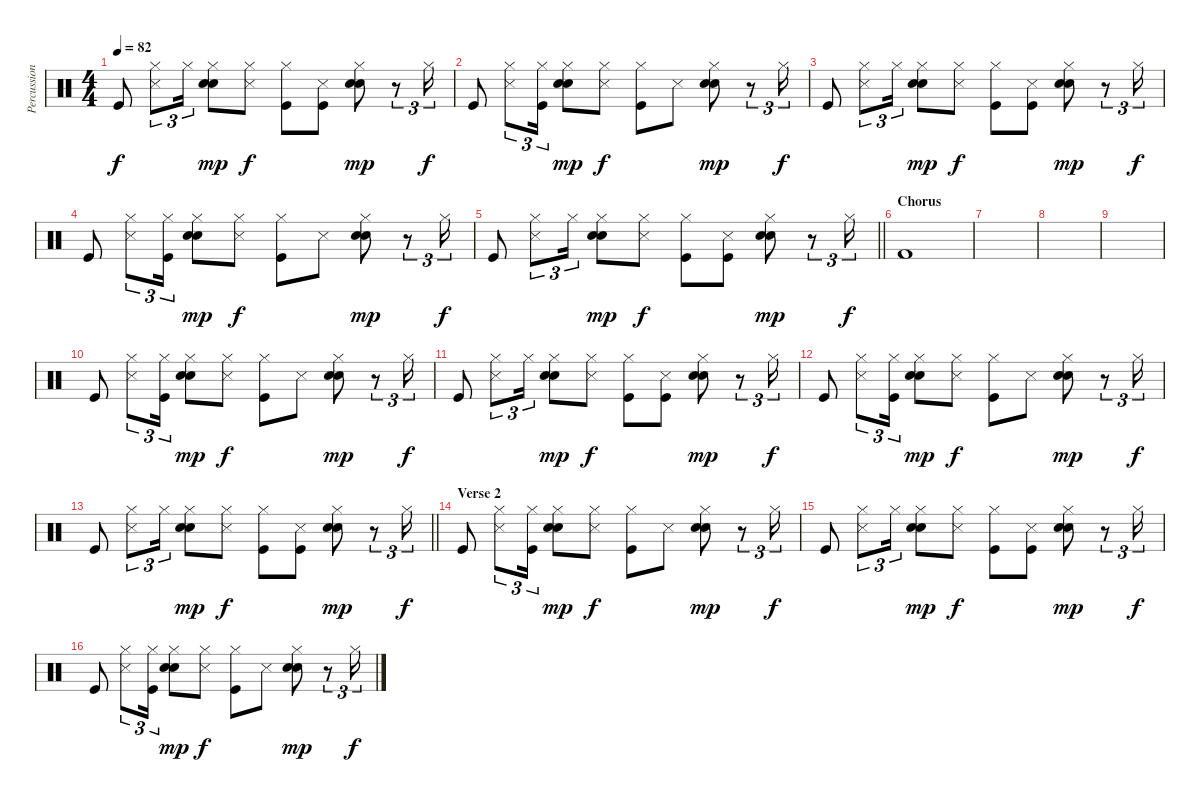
\track ("Percussion" "Percussion") {instrument percussion}
\staff {score}
\articulation defaults
\ts (4 4)
\tempo 82
\clef neutral
\ks c "Kick (hit)".8{dy f}
("Hi-Hat (closed)" "Snare (side stick) 3").8{tu (3 2)} "Hi-Hat (closed)".16{tu (3 2)} ("Hi-Hat (closed)" "Hand Clap (hit)" "Electric Snare (hit)").8{dy mp} ("Hi-Hat (closed)" "Snare (side stick) 3").8{dy f} ("Hi-Hat (closed)" "Kick (hit)").8 ("Snare (side stick) 3" "Kick (hit)").8 ("Hi-Hat (closed)" "Hand Clap (hit)" "Electric Snare (hit)").8{dy mp} r.8{tu (3 2)} "Hi-Hat (closed)".16{tu (3 2) dy f} |
"Kick (hit)".8{volume 13} ("Hi-Hat (closed)" "Snare (side stick) 3").8{tu (3 2)} ("Hi-Hat (closed)" "Kick (hit)").16{tu (3 2)} ("Hi-Hat (closed)" "Hand Clap (hit)" "Electric Snare (hit)").8{dy mp} ("Hi-Hat (closed)" "Snare (side stick) 3").8{dy f} ("Hi-Hat (closed)" "Kick (hit)").8 "Snare (side stick) 3".8 ("Hi-Hat (closed)" "Hand Clap (hit)" "Electric Snare (hit)").8{dy mp} r.8{tu (3 2)} "Hi-Hat (closed)".16{tu (3 2) dy f} |
"Kick (hit)".8 ("Hi-Hat (closed)" "Snare (side stick) 3").8{tu (3 2)} "Hi-Hat (closed)".16{tu (3 2)} ("Hi-Hat (closed)" "Hand Clap (hit)" "Electric Snare (hit)").8{dy mp} ("Hi-Hat (closed)" "Snare (side stick) 3").8{dy f} ("Hi-Hat (closed)" "Kick (hit)").8 ("Snare (side stick) 3" "Kick (hit)").8 ("Hi-Hat (closed)" "Hand Clap (hit)" "Electric Snare (hit)").8{dy mp} r.8{tu (3 2)} "Hi-Hat (closed)".16{tu (3 2) dy f} |
"Kick (hit)".8{volume 13} ("Hi-Hat (closed)" "Snare (side stick) 3").8{tu (3 2)} ("Hi-Hat (closed)" "Kick (hit)").16{tu (3 2)} ("Hi-Hat (closed)" "Hand Clap (hit)" "Electric Snare (hit)").8{dy mp} ("Hi-Hat (closed)" "Snare (side stick) 3").8{dy f} ("Hi-Hat (closed)" "Kick (hit)").8 "Snare (side stick) 3".8 ("Hi-Hat (closed)" "Hand Clap (hit)" "Electric Snare (hit)").8{dy mp} r.8{tu (3 2)} "Hi-Hat (closed)".16{tu (3 2) dy f} |
\barLineRight lightlight "Kick (hit)".8
("Hi-Hat (closed)" "Snare (side stick) 3").8{tu (3 2)} "Hi-Hat (closed)".16{tu (3 2)} ("Hi-Hat (closed)" "Hand Clap (hit)" "Electric Snare (hit)").8{dy mp} ("Hi-Hat (closed)" "Snare (side stick) 3").8{dy f} ("Hi-Hat (closed)" "Kick (hit)").8 ("Snare (side stick) 3" "Kick (hit)").8 ("Hi-Hat (closed)" "Hand Clap (hit)" "Electric Snare (hit)").8{dy mp} r.8{tu (3 2)} "Hi-Hat (closed)".16{tu (3 2) dy f} |
\section ("" "Chorus")
"Kick (hit) 2".1 |
|
|
|
"Kick (hit)".8 ("Hi-Hat (closed)" "Snare (side stick) 3").8{tu (3 2)} ("Hi-Hat (closed)" "Kick (hit)").16{tu (3 2)} ("Hi-Hat (closed)" "Hand Clap (hit)" "Electric Snare (hit)").8{dy mp} ("Hi-Hat (closed)" "Snare (side stick) 3").8{dy f} ("Hi-Hat (closed)" "Kick (hit)").8 "Snare (side stick) 3".8 ("Hi-Hat (closed)" "Hand Clap (hit)" "Electric Snare (hit)").8{dy mp} r.8{tu (3 2)} "Hi-Hat (closed)".16{tu (3 2) dy f} |
"Kick (hit)".8 ("Hi-Hat (closed)" "Snare (side stick) 3").8{tu (3 2)} "Hi-Hat (closed)".16{tu (3 2)} ("Hi-Hat (closed)" "Hand Clap (hit)" "Electric Snare (hit)").8{dy mp} ("Hi-Hat (closed)" "Snare (side stick) 3").8{dy f} ("Hi-Hat (closed)" "Kick (hit)").8 ("Snare (side stick) 3" "Kick (hit)").8 ("Hi-Hat (closed)" "Hand Clap (hit)" "Electric Snare (hit)").8{dy mp} r.8{tu (3 2)} "Hi-Hat (closed)".16{tu (3 2) dy f} |
"Kick (hit)".8 ("Hi-Hat (closed)" "Snare (side stick) 3").8{tu (3 2)} ("Hi-Hat (closed)" "Kick (hit)").16{tu (3 2)} ("Hi-Hat (closed)" "Hand Clap (hit)" "Electric Snare (hit)").8{dy mp} ("Hi-Hat (closed)" "Snare (side stick) 3").8{dy f} ("Hi-Hat (closed)" "Kick (hit)").8 "Snare (side stick) 3".8 ("Hi-Hat (closed)" "Hand Clap (hit)" "Electric Snare (hit)").8{dy mp} r.8{tu (3 2)} "Hi-Hat (closed)".16{tu (3 2) dy f} |
\barLineRight lightlight "Kick (hit)".8
("Hi-Hat (closed)" "Snare (side stick) 3").8{tu (3 2)} "Hi-Hat (closed)".16{tu (3 2)} ("Hi-Hat (closed)" "Hand Clap (hit)" "Electric Snare (hit)").8{dy mp} ("Hi-Hat (closed)" "Snare (side stick) 3").8{dy f} ("Hi-Hat (closed)" "Kick (hit)").8 ("Snare (side stick) 3" "Kick (hit)").8 ("Hi-Hat (closed)" "Hand Clap (hit)" "Electric Snare (hit)").8{dy mp} r.8{tu (3 2)} "Hi-Hat (closed)".16{tu (3 2) dy f} |
\section ("" "Verse 2")
"Kick (hit)".8{volume 13} ("Hi-Hat (closed)" "Snare (side stick) 3").8{tu (3 2)} ("Hi-Hat (closed)" "Kick (hit)").16{tu (3 2)} ("Hi-Hat (closed)" "Hand Clap (hit)" "Electric Snare (hit)").8{dy mp} ("Hi-Hat (closed)" "Snare (side stick) 3").8{dy f} ("Hi-Hat (closed)" "Kick (hit)").8 "Snare (side stick) 3".8 ("Hi-Hat (closed)" "Hand Clap (hit)" "Electric Snare (hit)").8{dy mp} r.8{tu (3 2)} "Hi-Hat (closed)".16{tu (3 2) dy f} |
"Kick (hit)".8 ("Hi-Hat (closed)" "Snare (side stick) 3").8{tu (3 2)} "Hi-Hat (closed)".16{tu (3 2)} ("Hi-Hat (closed)" "Hand Clap (hit)" "Electric Snare (hit)").8{dy mp} ("Hi-Hat (closed)" "Snare (side stick) 3").8{dy f} ("Hi-Hat (closed)" "Kick (hit)").8 ("Snare (side stick) 3" "Kick (hit)").8 ("Hi-Hat (closed)" "Hand Clap (hit)" "Electric Snare (hit)").8{dy mp} r.8{tu (3 2)} "Hi-Hat (closed)".16{tu (3 2) dy f} |
"Kick (hit)".8{volume 13} ("Hi-Hat (closed)" "Snare (side stick) 3").8{tu (3 2)} ("Hi-Hat (closed)" "Kick (hit)").16{tu (3 2)} ("Hi-Hat (closed)" "Hand Clap (hit)" "Electric Snare (hit)").8{dy mp} ("Hi-Hat (closed)" "Snare (side stick) 3").8{dy f} ("Hi-Hat (closed)" "Kick (hit)").8 "Snare (side stick) 3".8 ("Hi-Hat (closed)" "Hand Clap (hit)" "Electric Snare (hit)").8{dy mp} r.8{tu (3 2)} "Hi-Hat (closed)".16{tu (3 2) dy f}
